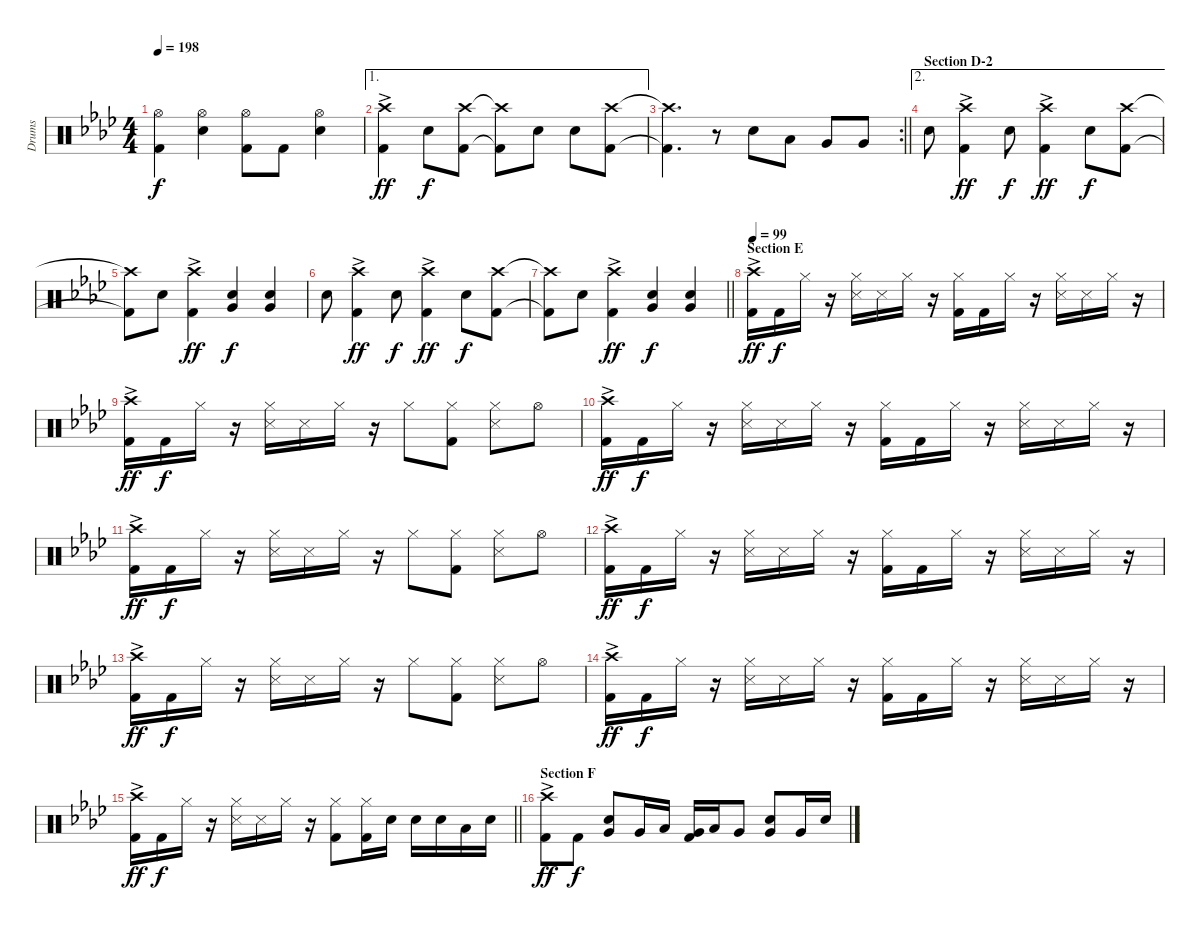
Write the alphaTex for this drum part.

\track ("Drums" "Drums") {instrument percussion}
\staff {score}
\articulation defaults
\ts (4 4)
\tempo 198
\clef neutral
\ks ab
("Hi-Hat (open)" "Kick (hit) 2").4{dy f} ("Hi-Hat (open)" "Snare (hit) 2").4 ("Hi-Hat (open)" "Kick (hit) 2").8 "Kick (hit) 2".8 ("Hi-Hat (open)" "Snare (hit) 2").4 |
\ae 1
("Crash high (hit)"{ac} "Kick (hit) 2").4{dy ff} "Snare (hit) 2".8{dy f} ("Crash high (hit)" "Kick (hit) 2").8 ("Crash high (hit)"{t} "Kick (hit) 2"{t}).8 "Snare (hit) 2".8 "Snare (hit) 2".8 ("Crash high (hit)" "Kick (hit) 2").8 |
\rc 2
\barLineRight lightlight
("Crash high (hit)"{t} "Kick (hit) 2"{t}).4{d} r.8 "Snare (hit) 2".8 "Low Tom (hit)".8 "Very Low Tom (hit)".8 "Very Low Tom (hit)".8 |
\ae 2
\section ("" "Section D-2")
"Snare (hit) 2".8 ("Crash high (hit)"{ac} "Kick (hit) 2").4{dy ff} "Snare (hit) 2".8{dy f} ("Crash high (hit)"{ac} "Kick (hit) 2").4{dy ff} "Snare (hit) 2".8{dy f} ("Crash high (hit)" "Kick (hit) 2").8 |
("Crash high (hit)"{t} "Kick (hit) 2"{t}).8 "Snare (hit) 2".8 ("Crash high (hit)" "Kick (hit) 2"{ac}).4{dy ff} ("Snare (hit) 2" "Very Low Tom (hit)").4{dy f} ("Snare (hit) 2" "Very Low Tom (hit)").4 |
"Snare (hit) 2".8 ("Crash high (hit)"{ac} "Kick (hit) 2").4{dy ff} "Snare (hit) 2".8{dy f} ("Crash high (hit)"{ac} "Kick (hit) 2").4{dy ff} "Snare (hit) 2".8{dy f} ("Crash high (hit)" "Kick (hit) 2").8 |
\barLineRight lightlight
("Crash high (hit)"{t} "Kick (hit) 2"{t}).8 "Snare (hit) 2".8 ("Crash high (hit)" "Kick (hit) 2"{ac}).4{dy ff} ("Snare (hit) 2" "Very Low Tom (hit)").4{dy f} ("Snare (hit) 2" "Very Low Tom (hit)").4 |
\section ("" "Section E")
\tempo 99
("Crash high (hit)"{ac} "Kick (hit) 2").16{dy ff} "Kick (hit) 2".16{dy f} "Hi-Hat (closed)".16 r.16 ("Hi-Hat (closed)" "Snare (side stick) 3").16 "Snare (side stick) 3".16 "Hi-Hat (closed)".16 r.16 ("Hi-Hat (closed)" "Kick (hit) 2").16 "Kick (hit) 2".16 "Hi-Hat (closed)".16 r.16 ("Hi-Hat (closed)" "Snare (side stick) 3").16 "Snare (side stick) 3".16 "Hi-Hat (closed)".16 r.16 |
("Crash high (hit)"{ac} "Kick (hit) 2").16{dy ff} "Kick (hit) 2".16{dy f} "Hi-Hat (closed)".16 r.16 ("Hi-Hat (closed)" "Snare (side stick) 3").16 "Snare (side stick) 3".16 "Hi-Hat (closed)".16 r.16 "Hi-Hat (closed)".8 ("Hi-Hat (closed)" "Kick (hit) 2").8 ("Hi-Hat (closed)" "Snare (side stick) 3").8 "Hi-Hat (open)".8 |
("Crash high (hit)"{ac} "Kick (hit) 2").16{dy ff} "Kick (hit) 2".16{dy f} "Hi-Hat (closed)".16 r.16 ("Hi-Hat (closed)" "Snare (side stick) 3").16 "Snare (side stick) 3".16 "Hi-Hat (closed)".16 r.16 ("Hi-Hat (closed)" "Kick (hit) 2").16 "Kick (hit) 2".16 "Hi-Hat (closed)".16 r.16 ("Hi-Hat (closed)" "Snare (side stick) 3").16 "Snare (side stick) 3".16 "Hi-Hat (closed)".16 r.16 |
("Crash high (hit)"{ac} "Kick (hit) 2").16{dy ff} "Kick (hit) 2".16{dy f} "Hi-Hat (closed)".16 r.16 ("Hi-Hat (closed)" "Snare (side stick) 3").16 "Snare (side stick) 3".16 "Hi-Hat (closed)".16 r.16 "Hi-Hat (closed)".8 ("Hi-Hat (closed)" "Kick (hit) 2").8 ("Hi-Hat (closed)" "Snare (side stick) 3").8 "Hi-Hat (open)".8 |
("Crash high (hit)"{ac} "Kick (hit) 2").16{dy ff} "Kick (hit) 2".16{dy f} "Hi-Hat (closed)".16 r.16 ("Hi-Hat (closed)" "Snare (side stick) 3").16 "Snare (side stick) 3".16 "Hi-Hat (closed)".16 r.16 ("Hi-Hat (closed)" "Kick (hit) 2").16 "Kick (hit) 2".16 "Hi-Hat (closed)".16 r.16 ("Hi-Hat (closed)" "Snare (side stick) 3").16 "Snare (side stick) 3".16 "Hi-Hat (closed)".16 r.16 |
("Crash high (hit)"{ac} "Kick (hit) 2").16{dy ff} "Kick (hit) 2".16{dy f} "Hi-Hat (closed)".16 r.16 ("Hi-Hat (closed)" "Snare (side stick) 3").16 "Snare (side stick) 3".16 "Hi-Hat (closed)".16 r.16 "Hi-Hat (closed)".8 ("Hi-Hat (closed)" "Kick (hit) 2").8 ("Hi-Hat (closed)" "Snare (side stick) 3").8 "Hi-Hat (open)".8 |
("Crash high (hit)"{ac} "Kick (hit) 2").16{dy ff} "Kick (hit) 2".16{dy f} "Hi-Hat (closed)".16 r.16 ("Hi-Hat (closed)" "Snare (side stick) 3").16 "Snare (side stick) 3".16 "Hi-Hat (closed)".16 r.16 ("Hi-Hat (closed)" "Kick (hit) 2").16 "Kick (hit) 2".16 "Hi-Hat (closed)".16 r.16 ("Hi-Hat (closed)" "Snare (side stick) 3").16 "Snare (side stick) 3".16 "Hi-Hat (closed)".16 r.16 |
\barLineRight lightlight
("Crash high (hit)"{ac} "Kick (hit) 2").16{dy ff} "Kick (hit) 2".16{dy f} "Hi-Hat (closed)".16 r.16 ("Hi-Hat (closed)" "Snare (side stick) 3").16 "Snare (side stick) 3".16 "Hi-Hat (closed)".16 r.16 ("Hi-Hat (closed)" "Kick (hit) 2").8 ("Hi-Hat (closed)" "Kick (hit) 2").16 "Snare (hit) 2".16 "Snare (hit) 2".16 "Snare (hit) 2".16 "Low Tom (hit)".16 "Snare (hit) 2".16 |
\section ("" "Section F")
("Crash high (hit)"{ac} "Kick (hit) 2").8{dy ff} "Kick (hit) 2".8{dy f} ("Snare (hit) 2" "Very Low Tom (hit)").8 "Very Low Tom (hit)".16 "Low Tom (hit)".16 ("Very Low Tom (hit)" "Kick (hit) 2").16 "Low Tom (hit)".16 "Very Low Tom (hit)".8 ("Snare (hit) 2" "Very Low Tom (hit)").8 "Very Low Tom (hit)".16 "Snare (hit) 2".16
